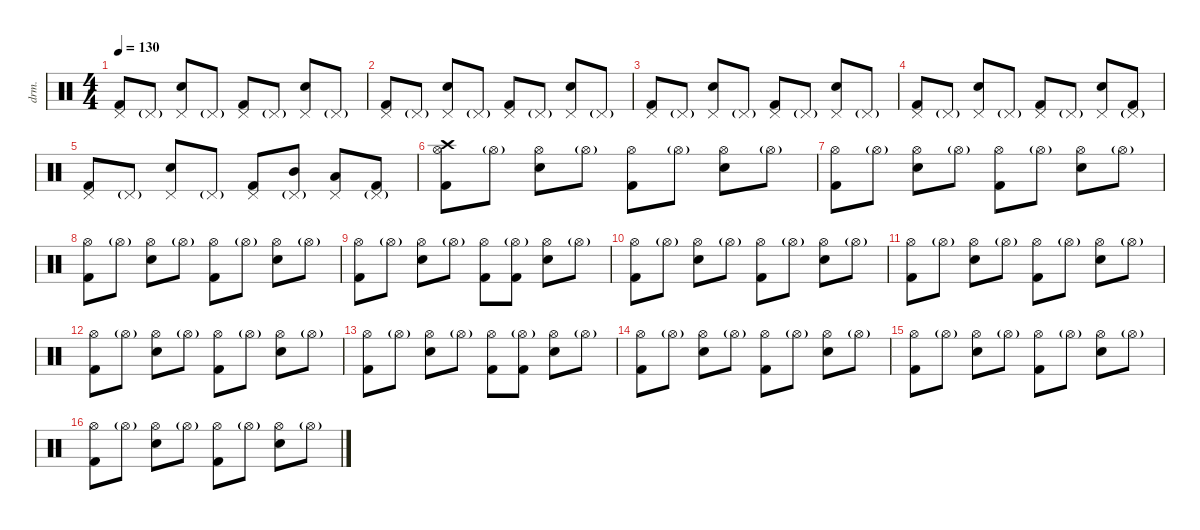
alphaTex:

\defaultSystemsLayout 4
\hideDynamics
\bracketExtendMode nobrackets
\otherSystemsTrackNameOrientation horizontal
\track ("Percussion" "drm.") {instrument percussion}
\staff {score}
\articulation defaults
\ts (4 4)
\tempo 130
\clef neutral
\ks c
("Pedal Hi-Hat (hit)" "Kick (hit) 2").8{dy f} "Pedal Hi-Hat (hit)"{g}.8 ("Pedal Hi-Hat (hit)" "Snare (hit) 2").8 "Pedal Hi-Hat (hit)"{g}.8 ("Pedal Hi-Hat (hit)" "Kick (hit) 2").8 "Pedal Hi-Hat (hit)"{g}.8 ("Pedal Hi-Hat (hit)" "Snare (hit) 2").8 "Pedal Hi-Hat (hit)"{g}.8 |
("Pedal Hi-Hat (hit)" "Kick (hit) 2").8 "Pedal Hi-Hat (hit)"{g}.8 ("Pedal Hi-Hat (hit)" "Snare (hit) 2").8 "Pedal Hi-Hat (hit)"{g}.8 ("Pedal Hi-Hat (hit)" "Kick (hit) 2").8 "Pedal Hi-Hat (hit)"{g}.8 ("Pedal Hi-Hat (hit)" "Snare (hit) 2").8 "Pedal Hi-Hat (hit)"{g}.8 |
("Pedal Hi-Hat (hit)" "Kick (hit) 2").8 "Pedal Hi-Hat (hit)"{g}.8 ("Pedal Hi-Hat (hit)" "Snare (hit) 2").8 "Pedal Hi-Hat (hit)"{g}.8 ("Pedal Hi-Hat (hit)" "Kick (hit) 2").8 "Pedal Hi-Hat (hit)"{g}.8 ("Pedal Hi-Hat (hit)" "Snare (hit) 2").8 "Pedal Hi-Hat (hit)"{g}.8 |
("Pedal Hi-Hat (hit)" "Kick (hit) 2").8 "Pedal Hi-Hat (hit)"{g}.8 ("Pedal Hi-Hat (hit)" "Snare (hit) 2").8 "Pedal Hi-Hat (hit)"{g}.8 ("Pedal Hi-Hat (hit)" "Kick (hit) 2").8 "Pedal Hi-Hat (hit)"{g}.8 ("Pedal Hi-Hat (hit)" "Snare (hit) 2").8 ("Pedal Hi-Hat (hit)"{g} "Kick (hit) 2").8 |
("Pedal Hi-Hat (hit)" "Kick (hit) 2").8 "Pedal Hi-Hat (hit)"{g}.8 ("Pedal Hi-Hat (hit)" "Snare (hit) 2").8 "Pedal Hi-Hat (hit)"{g}.8 ("Pedal Hi-Hat (hit)" "Kick (hit) 2").8 ("Pedal Hi-Hat (hit)"{g} "Mid Tom (hit)").8{dy ff} ("Pedal Hi-Hat (hit)" "Low Tom (hit)").8{dy f} ("Pedal Hi-Hat (hit)"{g} "Kick (hit) 2").8 |
("Hi-Hat (open)" "Crash high (hit)" "Kick (hit) 2").8 "Hi-Hat (open)"{g}.8 ("Hi-Hat (open)" "Snare (hit) 2").8 "Hi-Hat (open)"{g}.8 ("Hi-Hat (open)" "Kick (hit) 2").8 "Hi-Hat (open)"{g}.8 ("Hi-Hat (open)" "Snare (hit) 2").8 "Hi-Hat (open)"{g}.8 |
("Hi-Hat (open)" "Kick (hit) 2").8 "Hi-Hat (open)"{g}.8 ("Hi-Hat (open)" "Snare (hit) 2").8 "Hi-Hat (open)"{g}.8 ("Hi-Hat (open)" "Kick (hit) 2").8 "Hi-Hat (open)"{g}.8 ("Hi-Hat (open)" "Snare (hit) 2").8 "Hi-Hat (open)"{g}.8 |
("Hi-Hat (open)" "Kick (hit) 2").8 "Hi-Hat (open)"{g}.8 ("Hi-Hat (open)" "Snare (hit) 2").8 "Hi-Hat (open)"{g}.8 ("Hi-Hat (open)" "Kick (hit) 2").8 "Hi-Hat (open)"{g}.8 ("Hi-Hat (open)" "Snare (hit) 2").8 "Hi-Hat (open)"{g}.8 |
("Hi-Hat (open)" "Kick (hit) 2").8 "Hi-Hat (open)"{g}.8 ("Hi-Hat (open)" "Snare (hit) 2").8 "Hi-Hat (open)"{g}.8 ("Hi-Hat (open)" "Kick (hit) 2").8 ("Hi-Hat (open)"{g} "Kick (hit) 2").8 ("Hi-Hat (open)" "Snare (hit) 2").8 "Hi-Hat (open)"{g}.8 |
("Hi-Hat (open)" "Kick (hit) 2").8 "Hi-Hat (open)"{g}.8 ("Hi-Hat (open)" "Snare (hit) 2").8 "Hi-Hat (open)"{g}.8 ("Hi-Hat (open)" "Kick (hit) 2").8 "Hi-Hat (open)"{g}.8 ("Hi-Hat (open)" "Snare (hit) 2").8 "Hi-Hat (open)"{g}.8 |
("Hi-Hat (open)" "Kick (hit) 2").8 "Hi-Hat (open)"{g}.8 ("Hi-Hat (open)" "Snare (hit) 2").8 "Hi-Hat (open)"{g}.8 ("Hi-Hat (open)" "Kick (hit) 2").8 "Hi-Hat (open)"{g}.8 ("Hi-Hat (open)" "Snare (hit) 2").8 "Hi-Hat (open)"{g}.8 |
("Hi-Hat (open)" "Kick (hit) 2").8 "Hi-Hat (open)"{g}.8 ("Hi-Hat (open)" "Snare (hit) 2").8 "Hi-Hat (open)"{g}.8 ("Hi-Hat (open)" "Kick (hit) 2").8 "Hi-Hat (open)"{g}.8 ("Hi-Hat (open)" "Snare (hit) 2").8 "Hi-Hat (open)"{g}.8 |
("Hi-Hat (open)" "Kick (hit) 2").8 "Hi-Hat (open)"{g}.8 ("Hi-Hat (open)" "Snare (hit) 2").8 "Hi-Hat (open)"{g}.8 ("Hi-Hat (open)" "Kick (hit) 2").8 ("Hi-Hat (open)"{g} "Kick (hit) 2").8 ("Hi-Hat (open)" "Snare (hit) 2").8 "Hi-Hat (open)"{g}.8 |
("Hi-Hat (open)" "Kick (hit) 2").8 "Hi-Hat (open)"{g}.8 ("Hi-Hat (open)" "Snare (hit) 2").8 "Hi-Hat (open)"{g}.8 ("Hi-Hat (open)" "Kick (hit) 2").8 "Hi-Hat (open)"{g}.8 ("Hi-Hat (open)" "Snare (hit) 2").8 "Hi-Hat (open)"{g}.8 |
("Hi-Hat (open)" "Kick (hit) 2").8 "Hi-Hat (open)"{g}.8 ("Hi-Hat (open)" "Snare (hit) 2").8 "Hi-Hat (open)"{g}.8 ("Hi-Hat (open)" "Kick (hit) 2").8 "Hi-Hat (open)"{g}.8 ("Hi-Hat (open)" "Snare (hit) 2").8 "Hi-Hat (open)"{g}.8 |
("Hi-Hat (open)" "Kick (hit) 2").8 "Hi-Hat (open)"{g}.8 ("Hi-Hat (open)" "Snare (hit) 2").8 "Hi-Hat (open)"{g}.8 ("Hi-Hat (open)" "Kick (hit) 2").8 "Hi-Hat (open)"{g}.8 ("Hi-Hat (open)" "Snare (hit) 2").8 "Hi-Hat (open)"{g}.8
